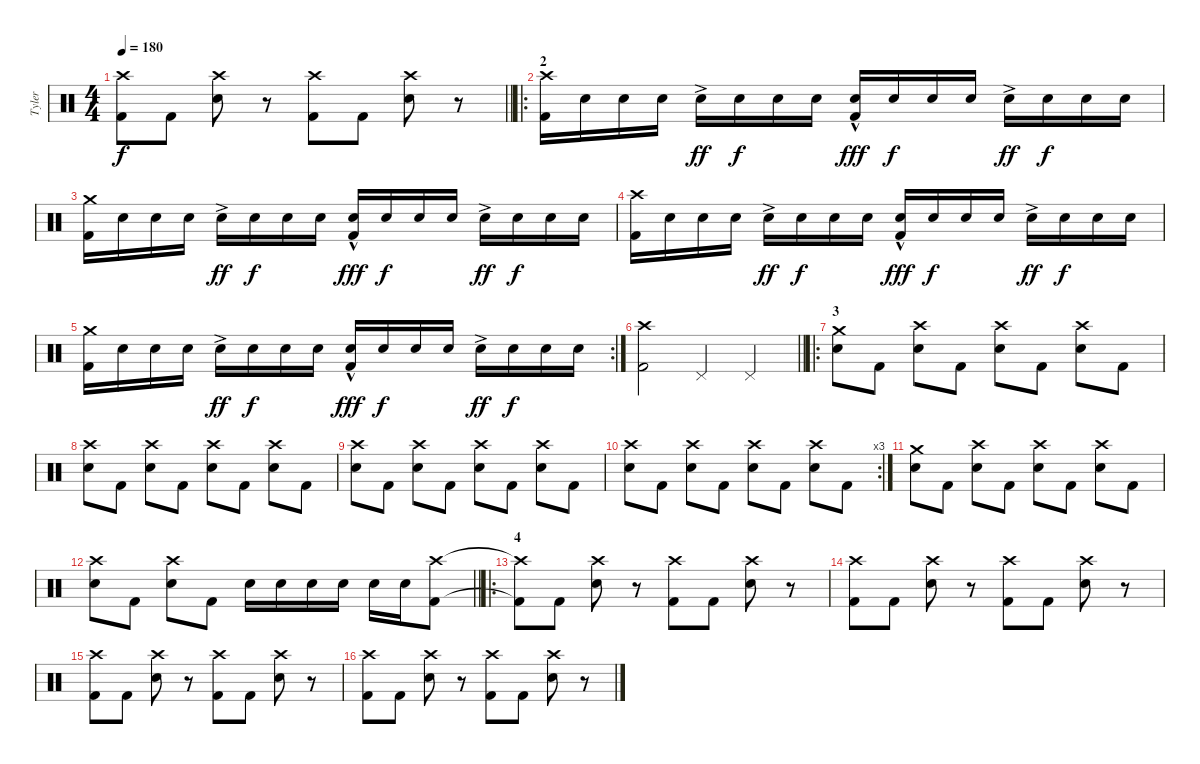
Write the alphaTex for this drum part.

\track ("Tyler" "Tyler") {instrument percussion}
\staff {score}
\articulation defaults
\ts (4 4)
\tempo 180
\clef neutral
\barLineRight lightlight
\ks c
("Crash high (hit)" "Kick (hit) 2").8{dy f} "Kick (hit) 2".8 ("Crash high (hit)" "Snare (hit) 2").8 r.8 ("Crash high (hit)" "Kick (hit) 2").8 "Kick (hit) 2".8 ("Crash high (hit)" "Snare (hit) 2").8 r.8 |
\ro
\section ("" "2")
("Crash high (hit)" "Kick (hit) 2").16 "Snare (hit) 2".16 "Snare (hit) 2".16 "Snare (hit) 2".16 "Snare (hit) 2"{ac}.16{dy ff} "Snare (hit) 2".16{dy f} "Snare (hit) 2".16 "Snare (hit) 2".16 ("Snare (hit) 2"{hac} "Kick (hit) 2").16{dy fff} "Snare (hit) 2".16{dy f} "Snare (hit) 2".16 "Snare (hit) 2".16 "Snare (hit) 2"{ac}.16{dy ff} "Snare (hit) 2".16{dy f} "Snare (hit) 2".16 "Snare (hit) 2".16 |
("Crash medium (hit)" "Kick (hit) 2").16 "Snare (hit) 2".16 "Snare (hit) 2".16 "Snare (hit) 2".16 "Snare (hit) 2"{ac}.16{dy ff} "Snare (hit) 2".16{dy f} "Snare (hit) 2".16 "Snare (hit) 2".16 ("Snare (hit) 2"{hac} "Kick (hit) 2").16{dy fff} "Snare (hit) 2".16{dy f} "Snare (hit) 2".16 "Snare (hit) 2".16 "Snare (hit) 2"{ac}.16{dy ff} "Snare (hit) 2".16{dy f} "Snare (hit) 2".16 "Snare (hit) 2".16 |
("Crash high (hit)" "Kick (hit) 2").16 "Snare (hit) 2".16 "Snare (hit) 2".16 "Snare (hit) 2".16 "Snare (hit) 2"{ac}.16{dy ff} "Snare (hit) 2".16{dy f} "Snare (hit) 2".16 "Snare (hit) 2".16 ("Snare (hit) 2"{hac} "Kick (hit) 2").16{dy fff} "Snare (hit) 2".16{dy f} "Snare (hit) 2".16 "Snare (hit) 2".16 "Snare (hit) 2"{ac}.16{dy ff} "Snare (hit) 2".16{dy f} "Snare (hit) 2".16 "Snare (hit) 2".16 |
\rc 2
("Crash medium (hit)" "Kick (hit) 2").16 "Snare (hit) 2".16 "Snare (hit) 2".16 "Snare (hit) 2".16 "Snare (hit) 2"{ac}.16{dy ff} "Snare (hit) 2".16{dy f} "Snare (hit) 2".16 "Snare (hit) 2".16 ("Snare (hit) 2"{hac} "Kick (hit) 2").16{dy fff} "Snare (hit) 2".16{dy f} "Snare (hit) 2".16 "Snare (hit) 2".16 "Snare (hit) 2"{ac}.16{dy ff} "Snare (hit) 2".16{dy f} "Snare (hit) 2".16 "Snare (hit) 2".16 |
\barLineRight lightlight
("Crash high (hit)" "Kick (hit) 2").2 "Pedal Hi-Hat (hit)".4 "Pedal Hi-Hat (hit)".4 |
\ro
\section ("" "3")
("Crash medium (hit)" "Snare (hit) 2").8 "Kick (hit) 2".8 ("Crash high (hit)" "Snare (hit) 2").8 "Kick (hit) 2".8 ("Crash high (hit)" "Snare (hit) 2").8 "Kick (hit) 2".8 ("Crash high (hit)" "Snare (hit) 2").8 "Kick (hit) 2".8 |
("Crash high (hit)" "Snare (hit) 2").8 "Kick (hit) 2".8 ("Crash high (hit)" "Snare (hit) 2").8 "Kick (hit) 2".8 ("Crash high (hit)" "Snare (hit) 2").8 "Kick (hit) 2".8 ("Crash high (hit)" "Snare (hit) 2").8 "Kick (hit) 2".8 |
("Crash high (hit)" "Snare (hit) 2").8 "Kick (hit) 2".8 ("Crash high (hit)" "Snare (hit) 2").8 "Kick (hit) 2".8 ("Crash high (hit)" "Snare (hit) 2").8 "Kick (hit) 2".8 ("Crash high (hit)" "Snare (hit) 2").8 "Kick (hit) 2".8 |
\rc 3
("Crash high (hit)" "Snare (hit) 2").8 "Kick (hit) 2".8 ("Crash high (hit)" "Snare (hit) 2").8 "Kick (hit) 2".8 ("Crash high (hit)" "Snare (hit) 2").8 "Kick (hit) 2".8 ("Crash high (hit)" "Snare (hit) 2").8 "Kick (hit) 2".8 |
("Crash medium (hit)" "Snare (hit) 2").8 "Kick (hit) 2".8 ("Crash high (hit)" "Snare (hit) 2").8 "Kick (hit) 2".8 ("Crash high (hit)" "Snare (hit) 2").8 "Kick (hit) 2".8 ("Crash high (hit)" "Snare (hit) 2").8 "Kick (hit) 2".8 |
\barLineRight lightlight
("Crash high (hit)" "Snare (hit) 2").8 "Kick (hit) 2".8 ("Crash high (hit)" "Snare (hit) 2").8 "Kick (hit) 2".8 "Snare (hit) 2".16 "Snare (hit) 2".16 "Snare (hit) 2".16 "Snare (hit) 2".16 "Snare (hit) 2".16 "Snare (hit) 2".16 ("Crash high (hit)" "Kick (hit) 2").8 |
\ro
\section ("" "4")
("Crash high (hit)"{t} "Kick (hit) 2"{t}).8 "Kick (hit) 2".8 ("Crash high (hit)" "Snare (hit) 2").8 r.8 ("Crash high (hit)" "Kick (hit) 2").8 "Kick (hit) 2".8 ("Crash high (hit)" "Snare (hit) 2").8 r.8 |
("Crash high (hit)" "Kick (hit) 2").8 "Kick (hit) 2".8 ("Crash high (hit)" "Snare (hit) 2").8 r.8 ("Crash high (hit)" "Kick (hit) 2").8 "Kick (hit) 2".8 ("Crash high (hit)" "Snare (hit) 2").8 r.8 |
("Crash high (hit)" "Kick (hit) 2").8 "Kick (hit) 2".8 ("Crash high (hit)" "Snare (hit) 2").8 r.8 ("Crash high (hit)" "Kick (hit) 2").8 "Kick (hit) 2".8 ("Crash high (hit)" "Snare (hit) 2").8 r.8 |
("Crash high (hit)" "Kick (hit) 2").8 "Kick (hit) 2".8 ("Crash high (hit)" "Snare (hit) 2").8 r.8 ("Crash high (hit)" "Kick (hit) 2").8 "Kick (hit) 2".8 ("Crash high (hit)" "Snare (hit) 2").8 r.8
